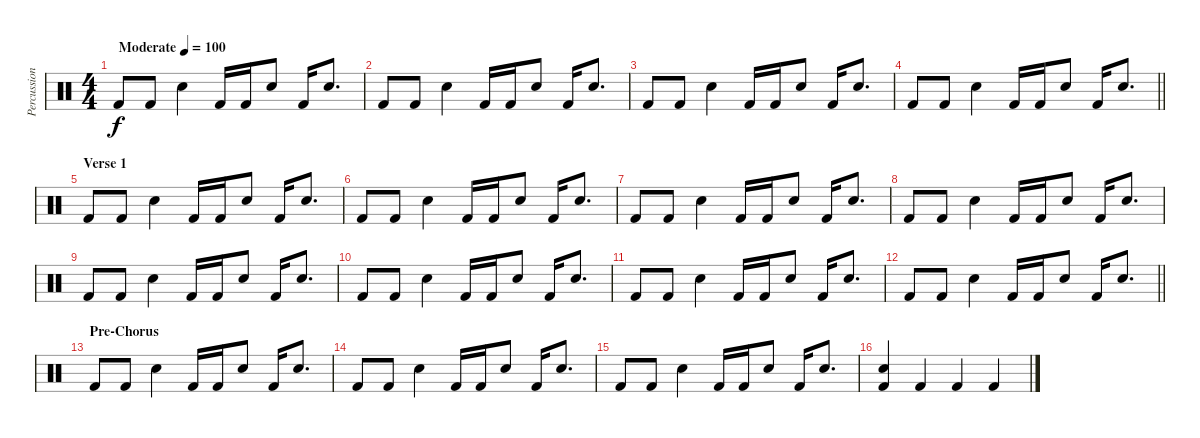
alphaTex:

\track ("Percussion" "Percussion") {instrument percussion}
\staff {score}
\articulation defaults
\ts (4 4)
\tempo (100 "Moderate")
\clef neutral
\ks c "Kick (hit) 2".8{dy f} "Kick (hit) 2".8 "Hand Clap (hit)".4 "Kick (hit) 2".16 "Kick (hit) 2".16 "Hand Clap (hit)".8 "Kick (hit) 2".16 "Hand Clap (hit)".8{d}
|
"Kick (hit) 2".8 "Kick (hit) 2".8 "Hand Clap (hit)".4 "Kick (hit) 2".16 "Kick (hit) 2".16 "Hand Clap (hit)".8 "Kick (hit) 2".16 "Hand Clap (hit)".8{d} |
"Kick (hit) 2".8 "Kick (hit) 2".8 "Hand Clap (hit)".4 "Kick (hit) 2".16 "Kick (hit) 2".16 "Hand Clap (hit)".8 "Kick (hit) 2".16 "Hand Clap (hit)".8{d} |
\barLineRight lightlight "Kick (hit) 2".8 "Kick (hit) 2".8 "Hand Clap (hit)".4 "Kick (hit) 2".16 "Kick (hit) 2".16 "Hand Clap (hit)".8 "Kick (hit) 2".16 "Hand Clap (hit)".8{d}
|
\section ("" "Verse 1")
"Kick (hit) 2".8 "Kick (hit) 2".8 "Hand Clap (hit)".4 "Kick (hit) 2".16 "Kick (hit) 2".16 "Hand Clap (hit)".8 "Kick (hit) 2".16 "Hand Clap (hit)".8{d} |
"Kick (hit) 2".8 "Kick (hit) 2".8 "Hand Clap (hit)".4 "Kick (hit) 2".16 "Kick (hit) 2".16 "Hand Clap (hit)".8 "Kick (hit) 2".16 "Hand Clap (hit)".8{d} |
"Kick (hit) 2".8 "Kick (hit) 2".8 "Hand Clap (hit)".4 "Kick (hit) 2".16 "Kick (hit) 2".16 "Hand Clap (hit)".8 "Kick (hit) 2".16 "Hand Clap (hit)".8{d} |
"Kick (hit) 2".8 "Kick (hit) 2".8 "Hand Clap (hit)".4 "Kick (hit) 2".16 "Kick (hit) 2".16 "Hand Clap (hit)".8 "Kick (hit) 2".16 "Hand Clap (hit)".8{d} |
"Kick (hit) 2".8 "Kick (hit) 2".8 "Hand Clap (hit)".4 "Kick (hit) 2".16 "Kick (hit) 2".16 "Hand Clap (hit)".8 "Kick (hit) 2".16 "Hand Clap (hit)".8{d} |
"Kick (hit) 2".8 "Kick (hit) 2".8 "Hand Clap (hit)".4 "Kick (hit) 2".16 "Kick (hit) 2".16 "Hand Clap (hit)".8 "Kick (hit) 2".16 "Hand Clap (hit)".8{d} |
"Kick (hit) 2".8 "Kick (hit) 2".8 "Hand Clap (hit)".4 "Kick (hit) 2".16 "Kick (hit) 2".16 "Hand Clap (hit)".8 "Kick (hit) 2".16 "Hand Clap (hit)".8{d} |
\barLineRight lightlight "Kick (hit) 2".8 "Kick (hit) 2".8 "Hand Clap (hit)".4 "Kick (hit) 2".16 "Kick (hit) 2".16 "Hand Clap (hit)".8 "Kick (hit) 2".16 "Hand Clap (hit)".8{d}
|
\section ("" "Pre-Chorus")
"Kick (hit) 2".8 "Kick (hit) 2".8 "Hand Clap (hit)".4 "Kick (hit) 2".16 "Kick (hit) 2".16 "Hand Clap (hit)".8 "Kick (hit) 2".16 "Hand Clap (hit)".8{d} |
"Kick (hit) 2".8 "Kick (hit) 2".8 "Hand Clap (hit)".4 "Kick (hit) 2".16 "Kick (hit) 2".16 "Hand Clap (hit)".8 "Kick (hit) 2".16 "Hand Clap (hit)".8{d} |
"Kick (hit) 2".8 "Kick (hit) 2".8 "Hand Clap (hit)".4 "Kick (hit) 2".16 "Kick (hit) 2".16 "Hand Clap (hit)".8 "Kick (hit) 2".16 "Hand Clap (hit)".8{d} |
("Hand Clap (hit)" "Kick (hit) 2").4 "Kick (hit) 2".4 "Kick (hit) 2".4 "Kick (hit) 2".4
